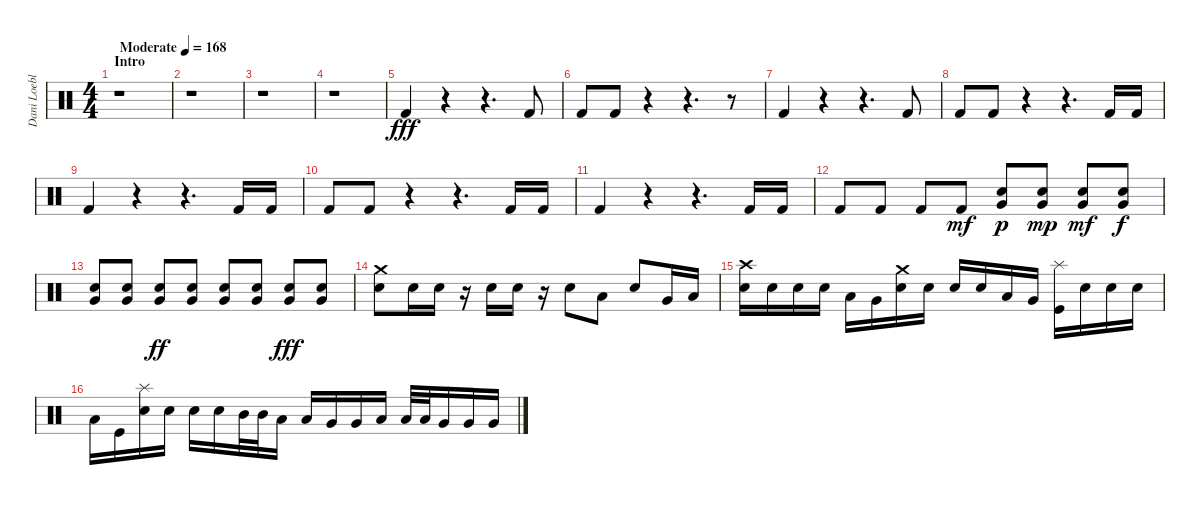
\track ("Dani Loeble" "Dani Loebl") {instrument percussion}
\staff {score}
\articulation defaults
\ts (4 4)
\section ("" "Intro")
\tempo (168 "Moderate")
\clef neutral
\ks c
r.1{dy fff} |
r.1 |
r.1 |
r.1 |
"Kick (hit) 2".4 r.4 r.4{d} "Kick (hit) 2".8 |
"Kick (hit) 2".8 "Kick (hit) 2".8 r.4 r.4{d} r.8 |
"Kick (hit) 2".4 r.4 r.4{d} "Kick (hit) 2".8 |
"Kick (hit) 2".8 "Kick (hit) 2".8 r.4 r.4{d} "Kick (hit) 2".16 "Kick (hit) 2".16 |
"Kick (hit) 2".4 r.4 r.4{d} "Kick (hit) 2".16 "Kick (hit) 2".16 |
"Kick (hit) 2".8 "Kick (hit) 2".8 r.4 r.4{d} "Kick (hit) 2".16 "Kick (hit) 2".16 |
"Kick (hit) 2".4 r.4 r.4{d} "Kick (hit) 2".16 "Kick (hit) 2".16 |
"Kick (hit) 2".8 "Kick (hit) 2".8 "Kick (hit) 2".8 "Kick (hit) 2".8{dy mf} ("Electric Snare (hit)" "Very Low Tom (hit)").8{dy p} ("Electric Snare (hit)" "Very Low Tom (hit)").8{dy mp} ("Electric Snare (hit)" "Very Low Tom (hit)").8{dy mf} ("Electric Snare (hit)" "Very Low Tom (hit)").8{dy f} |
("Electric Snare (hit)" "Very Low Tom (hit)").8 ("Electric Snare (hit)" "Very Low Tom (hit)").8 ("Electric Snare (hit)" "Very Low Tom (hit)").8{dy ff} ("Electric Snare (hit)" "Very Low Tom (hit)").8 ("Electric Snare (hit)" "Very Low Tom (hit)").8 ("Electric Snare (hit)" "Very Low Tom (hit)").8 ("Electric Snare (hit)" "Very Low Tom (hit)").8{dy fff} ("Electric Snare (hit)" "Very Low Tom (hit)").8 |
("Crash medium (hit)" "Electric Snare (hit)").8 "Electric Snare (hit)".16 "Electric Snare (hit)".16 r.16 "Electric Snare (hit)".16 "Electric Snare (hit)".16 r.16 "Electric Snare (hit)".8 "Low Tom (hit)".8 "Electric Snare (hit)".8 "Very Low Tom (hit)".16 "Low Floor Tom (hit)".16 |
("Crash high (hit)" "Electric Snare (hit)").16 "Electric Snare (hit)".16 "Electric Snare (hit)".16 "Electric Snare (hit)".16 "Low Tom (hit)".16 "Very Low Tom (hit)".16 ("Crash medium (hit)" "Electric Snare (hit)").16 "Electric Snare (hit)".16 "Electric Snare (hit)".16 "Electric Snare (hit)".16 "Low Tom (hit)".16 "Very Low Tom (hit)".16 ("Splash (hit)" "Kick (hit)").16 "Electric Snare (hit)".16 "Electric Snare (hit)".16 "Electric Snare (hit)".16 |
"Low Tom (hit)".16 "Kick (hit)".16 ("Splash (hit)" "Electric Snare (hit)").16 "Electric Snare (hit)".16 "Electric Snare (hit)".16 "Electric Snare (hit)".16 "Mid Tom (hit)".32 "Mid Tom (hit)".32 "Low Tom (hit)".16 "Low Tom (hit)".16 "Very Low Tom (hit)".16 "Very Low Tom (hit)".16 "Low Floor Tom (hit)".16 "Low Tom (hit)".32 "Low Tom (hit)".32 "Very Low Tom (hit)".16 "Very Low Tom (hit)".16 "Very Low Tom (hit)".16
